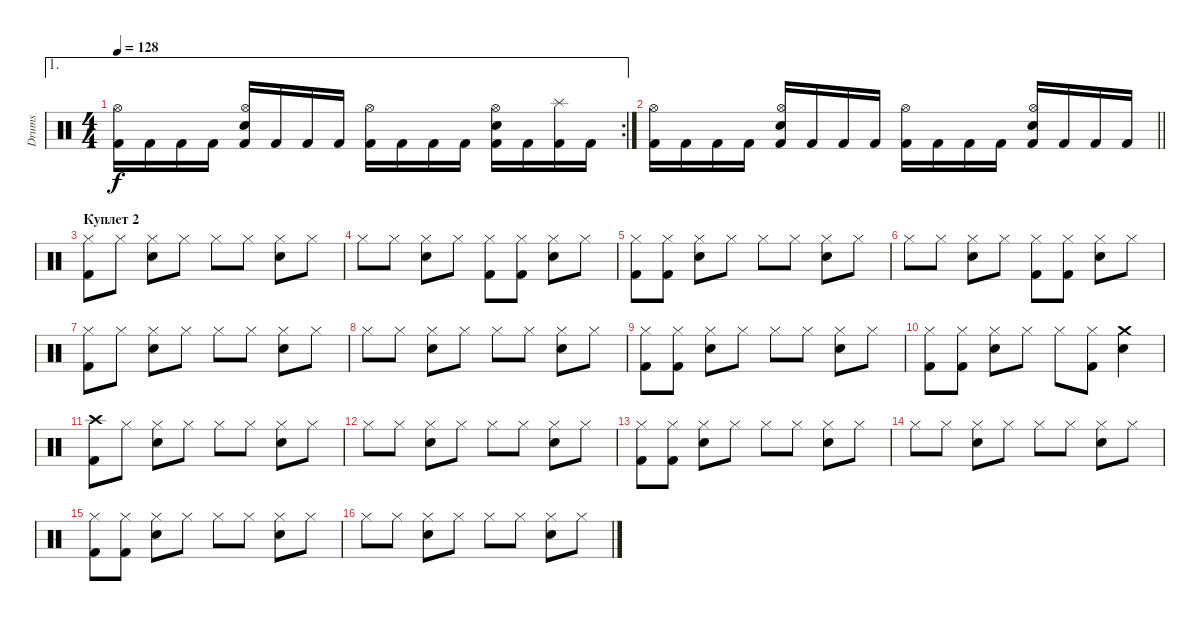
\track ("Drums" "Drums") {instrument percussion}
\staff {score}
\articulation defaults
\ae 1
\rc 2
\ts (4 4)
\tempo 128
\clef neutral
\ks c
("Kick (hit) 2" "Hi-Hat (open)").16{dy f} "Kick (hit) 2".16 "Kick (hit) 2".16 "Kick (hit) 2".16 ("Kick (hit) 2" "Electric Snare (hit)" "Hi-Hat (open)").16 "Kick (hit) 2".16 "Kick (hit) 2".16 "Kick (hit) 2".16 ("Kick (hit) 2" "Hi-Hat (open)").16 "Kick (hit) 2".16 "Kick (hit) 2".16 "Kick (hit) 2".16 ("Kick (hit) 2" "Electric Snare (hit)" "Hi-Hat (open)").16 "Kick (hit) 2".16 ("Kick (hit) 2" "Splash (hit)").16 "Kick (hit) 2".16 |
\barLineRight lightlight
("Kick (hit) 2" "Hi-Hat (open)").16 "Kick (hit) 2".16 "Kick (hit) 2".16 "Kick (hit) 2".16 ("Kick (hit) 2" "Electric Snare (hit)" "Hi-Hat (open)").16 "Kick (hit) 2".16 "Kick (hit) 2".16 "Kick (hit) 2".16 ("Kick (hit) 2" "Hi-Hat (open)").16 "Kick (hit) 2".16 "Kick (hit) 2".16 "Kick (hit) 2".16 ("Kick (hit) 2" "Electric Snare (hit)" "Hi-Hat (open)").16 "Kick (hit) 2".16 "Kick (hit) 2".16 "Kick (hit) 2".16 |
\section ("" "Куплет 2")
("Kick (hit) 2" "Hi-Hat (closed)").8 "Hi-Hat (closed)".8 ("Electric Snare (hit)" "Hi-Hat (closed)").8 "Hi-Hat (closed)".8 "Hi-Hat (closed)".8 "Hi-Hat (closed)".8 ("Electric Snare (hit)" "Hi-Hat (closed)").8 "Hi-Hat (closed)".8 |
"Hi-Hat (closed)".8 "Hi-Hat (closed)".8 ("Electric Snare (hit)" "Hi-Hat (closed)").8 "Hi-Hat (closed)".8 ("Kick (hit) 2" "Hi-Hat (closed)").8 ("Kick (hit) 2" "Hi-Hat (closed)").8 ("Electric Snare (hit)" "Hi-Hat (closed)").8 "Hi-Hat (closed)".8 |
("Kick (hit) 2" "Hi-Hat (closed)").8 ("Kick (hit) 2" "Hi-Hat (closed)").8 ("Electric Snare (hit)" "Hi-Hat (closed)").8 "Hi-Hat (closed)".8 "Hi-Hat (closed)".8 "Hi-Hat (closed)".8 ("Electric Snare (hit)" "Hi-Hat (closed)").8 "Hi-Hat (closed)".8 |
"Hi-Hat (closed)".8 "Hi-Hat (closed)".8 ("Electric Snare (hit)" "Hi-Hat (closed)").8 "Hi-Hat (closed)".8 ("Kick (hit) 2" "Hi-Hat (closed)").8 ("Kick (hit) 2" "Hi-Hat (closed)").8 ("Electric Snare (hit)" "Hi-Hat (closed)").8 "Hi-Hat (closed)".8 |
("Kick (hit) 2" "Hi-Hat (closed)").8 "Hi-Hat (closed)".8 ("Electric Snare (hit)" "Hi-Hat (closed)").8 "Hi-Hat (closed)".8 "Hi-Hat (closed)".8 "Hi-Hat (closed)".8 ("Electric Snare (hit)" "Hi-Hat (closed)").8 "Hi-Hat (closed)".8 |
"Hi-Hat (closed)".8 "Hi-Hat (closed)".8 ("Electric Snare (hit)" "Hi-Hat (closed)").8 "Hi-Hat (closed)".8 "Hi-Hat (closed)".8 "Hi-Hat (closed)".8 ("Electric Snare (hit)" "Hi-Hat (closed)").8 "Hi-Hat (closed)".8 |
("Kick (hit) 2" "Hi-Hat (closed)").8 ("Kick (hit) 2" "Hi-Hat (closed)").8 ("Electric Snare (hit)" "Hi-Hat (closed)").8 "Hi-Hat (closed)".8 "Hi-Hat (closed)".8 "Hi-Hat (closed)".8 ("Electric Snare (hit)" "Hi-Hat (closed)").8 "Hi-Hat (closed)".8 |
("Kick (hit) 2" "Hi-Hat (closed)").8 ("Kick (hit) 2" "Hi-Hat (closed)").8 ("Electric Snare (hit)" "Hi-Hat (closed)").8 "Hi-Hat (closed)".8 "Hi-Hat (closed)".8 ("Kick (hit) 2" "Hi-Hat (closed)").8 ("Electric Snare (hit)" "Crash medium (hit)").4 |
("Kick (hit) 2" "Crash high (hit)").8 "Hi-Hat (closed)".8 ("Electric Snare (hit)" "Hi-Hat (closed)").8 "Hi-Hat (closed)".8 "Hi-Hat (closed)".8 "Hi-Hat (closed)".8 ("Electric Snare (hit)" "Hi-Hat (closed)").8 "Hi-Hat (closed)".8 |
"Hi-Hat (closed)".8 "Hi-Hat (closed)".8 ("Electric Snare (hit)" "Hi-Hat (closed)").8 "Hi-Hat (closed)".8 "Hi-Hat (closed)".8 "Hi-Hat (closed)".8 ("Electric Snare (hit)" "Hi-Hat (closed)").8 "Hi-Hat (closed)".8 |
("Kick (hit) 2" "Hi-Hat (closed)").8 ("Kick (hit) 2" "Hi-Hat (closed)").8 ("Electric Snare (hit)" "Hi-Hat (closed)").8 "Hi-Hat (closed)".8 "Hi-Hat (closed)".8 "Hi-Hat (closed)".8 ("Electric Snare (hit)" "Hi-Hat (closed)").8 "Hi-Hat (closed)".8 |
"Hi-Hat (closed)".8 "Hi-Hat (closed)".8 ("Electric Snare (hit)" "Hi-Hat (closed)").8 "Hi-Hat (closed)".8 "Hi-Hat (closed)".8 "Hi-Hat (closed)".8 ("Electric Snare (hit)" "Hi-Hat (closed)").8 "Hi-Hat (closed)".8 |
("Kick (hit) 2" "Hi-Hat (closed)").8 ("Kick (hit) 2" "Hi-Hat (closed)").8 ("Electric Snare (hit)" "Hi-Hat (closed)").8 "Hi-Hat (closed)".8 "Hi-Hat (closed)".8 "Hi-Hat (closed)".8 ("Electric Snare (hit)" "Hi-Hat (closed)").8 "Hi-Hat (closed)".8 |
"Hi-Hat (closed)".8 "Hi-Hat (closed)".8 ("Electric Snare (hit)" "Hi-Hat (closed)").8 "Hi-Hat (closed)".8 "Hi-Hat (closed)".8 "Hi-Hat (closed)".8 ("Electric Snare (hit)" "Hi-Hat (closed)").8 "Hi-Hat (closed)".8
